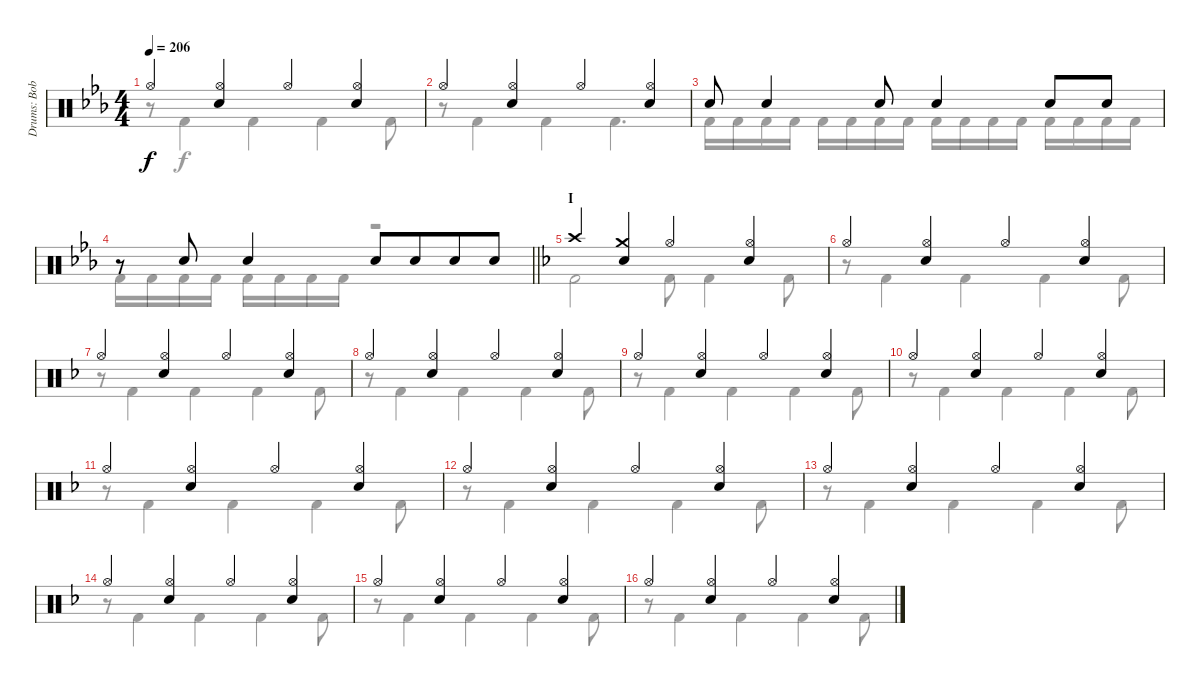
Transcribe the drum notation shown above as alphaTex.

\track ("Drums: Bobby" "Drums: Bob") {instrument percussion}
\staff {score}
\articulation defaults
\voice
\ts (4 4)
\tempo 206
\clef neutral
\ks eb "Hi-Hat (open)".4{dy f}
("Hi-Hat (open)" "Snare (hit) 2").4 "Hi-Hat (open)".4 ("Hi-Hat (open)" "Snare (hit) 2").4 |
"Hi-Hat (open)".4 ("Hi-Hat (open)" "Snare (hit) 2").4 "Hi-Hat (open)".4 ("Hi-Hat (open)" "Snare (hit) 2").4 |
"Electric Snare (hit)".8 "Snare (hit) 2".4 "Electric Snare (hit)".8 "Snare (hit) 2".4 "Electric Snare (hit)".8 "Electric Snare (hit)".8 |
\barLineRight lightlight
r.8 "Electric Snare (hit)".8 "Snare (hit) 2".4 "Electric Snare (hit)".8 "Electric Snare (hit)".8{beam merge} "Snare (hit) 2".8 "Snare (hit) 2".8 |
\section ("" "I")
\ks f "Crash high (hit)".4
("Crash medium (hit)" "Snare (hit) 2").4 "Hi-Hat (open)".4 ("Hi-Hat (open)" "Snare (hit) 2").4 |
"Hi-Hat (open)".4 ("Hi-Hat (open)" "Snare (hit) 2").4 "Hi-Hat (open)".4 ("Hi-Hat (open)" "Snare (hit) 2").4 |
"Hi-Hat (open)".4 ("Hi-Hat (open)" "Snare (hit) 2").4 "Hi-Hat (open)".4 ("Hi-Hat (open)" "Snare (hit) 2").4 |
"Hi-Hat (open)".4 ("Hi-Hat (open)" "Snare (hit) 2").4 "Hi-Hat (open)".4 ("Hi-Hat (open)" "Snare (hit) 2").4 |
"Hi-Hat (open)".4 ("Hi-Hat (open)" "Snare (hit) 2").4 "Hi-Hat (open)".4 ("Hi-Hat (open)" "Snare (hit) 2").4 |
"Hi-Hat (open)".4 ("Hi-Hat (open)" "Snare (hit) 2").4 "Hi-Hat (open)".4 ("Hi-Hat (open)" "Snare (hit) 2").4 |
"Hi-Hat (open)".4 ("Hi-Hat (open)" "Snare (hit) 2").4 "Hi-Hat (open)".4 ("Hi-Hat (open)" "Snare (hit) 2").4 |
"Hi-Hat (open)".4 ("Hi-Hat (open)" "Snare (hit) 2").4 "Hi-Hat (open)".4 ("Hi-Hat (open)" "Snare (hit) 2").4 |
"Hi-Hat (open)".4 ("Hi-Hat (open)" "Snare (hit) 2").4 "Hi-Hat (open)".4 ("Hi-Hat (open)" "Snare (hit) 2").4 |
"Hi-Hat (open)".4 ("Hi-Hat (open)" "Snare (hit) 2").4 "Hi-Hat (open)".4 ("Hi-Hat (open)" "Snare (hit) 2").4 |
"Hi-Hat (open)".4 ("Hi-Hat (open)" "Snare (hit) 2").4 "Hi-Hat (open)".4 ("Hi-Hat (open)" "Snare (hit) 2").4 |
"Hi-Hat (open)".4 ("Hi-Hat (open)" "Snare (hit) 2").4 "Hi-Hat (open)".4 ("Hi-Hat (open)" "Snare (hit) 2").4
\voice
\clef neutral
\ottava regular
\simile none
\ks eb
r.8{dy f} "Kick (hit) 2".4 "Kick (hit) 2".4 "Kick (hit) 2".4 "Kick (hit) 2".8 |
r.8 "Kick (hit) 2".4 "Kick (hit) 2".4 "Kick (hit) 2".4{d} |
"Kick (hit) 2".16 "Kick (hit) 2".16 "Kick (hit) 2".16 "Kick (hit) 2".16 "Kick (hit) 2".16 "Kick (hit) 2".16 "Kick (hit) 2".16 "Kick (hit) 2".16 "Kick (hit) 2".16 "Kick (hit) 2".16 "Kick (hit) 2".16 "Kick (hit) 2".16 "Kick (hit) 2".16 "Kick (hit) 2".16 "Kick (hit) 2".16 "Kick (hit) 2".16 |
\barLineRight lightlight "Kick (hit) 2".16 "Kick (hit) 2".16 "Kick (hit) 2".16 "Kick (hit) 2".16 "Kick (hit) 2".16 "Kick (hit) 2".16 "Kick (hit) 2".16 "Kick (hit) 2".16
r.2 |
\ks f "Kick (hit) 2".2 "Kick (hit) 2".8 "Kick (hit) 2".4 "Kick (hit) 2".8
|
r.8 "Kick (hit) 2".4 "Kick (hit) 2".4 "Kick (hit) 2".4 "Kick (hit) 2".8 |
r.8 "Kick (hit) 2".4 "Kick (hit) 2".4 "Kick (hit) 2".4 "Kick (hit) 2".8 |
r.8 "Kick (hit) 2".4 "Kick (hit) 2".4 "Kick (hit) 2".4 "Kick (hit) 2".8 |
r.8 "Kick (hit) 2".4 "Kick (hit) 2".4 "Kick (hit) 2".4 "Kick (hit) 2".8 |
r.8 "Kick (hit) 2".4 "Kick (hit) 2".4 "Kick (hit) 2".4 "Kick (hit) 2".8 |
r.8 "Kick (hit) 2".4 "Kick (hit) 2".4 "Kick (hit) 2".4 "Kick (hit) 2".8 |
r.8 "Kick (hit) 2".4 "Kick (hit) 2".4 "Kick (hit) 2".4 "Kick (hit) 2".8 |
r.8 "Kick (hit) 2".4 "Kick (hit) 2".4 "Kick (hit) 2".4 "Kick (hit) 2".8 |
r.8 "Kick (hit) 2".4 "Kick (hit) 2".4 "Kick (hit) 2".4 "Kick (hit) 2".8 |
r.8 "Kick (hit) 2".4 "Kick (hit) 2".4 "Kick (hit) 2".4 "Kick (hit) 2".8 |
r.8 "Kick (hit) 2".4 "Kick (hit) 2".4 "Kick (hit) 2".4 "Kick (hit) 2".8
